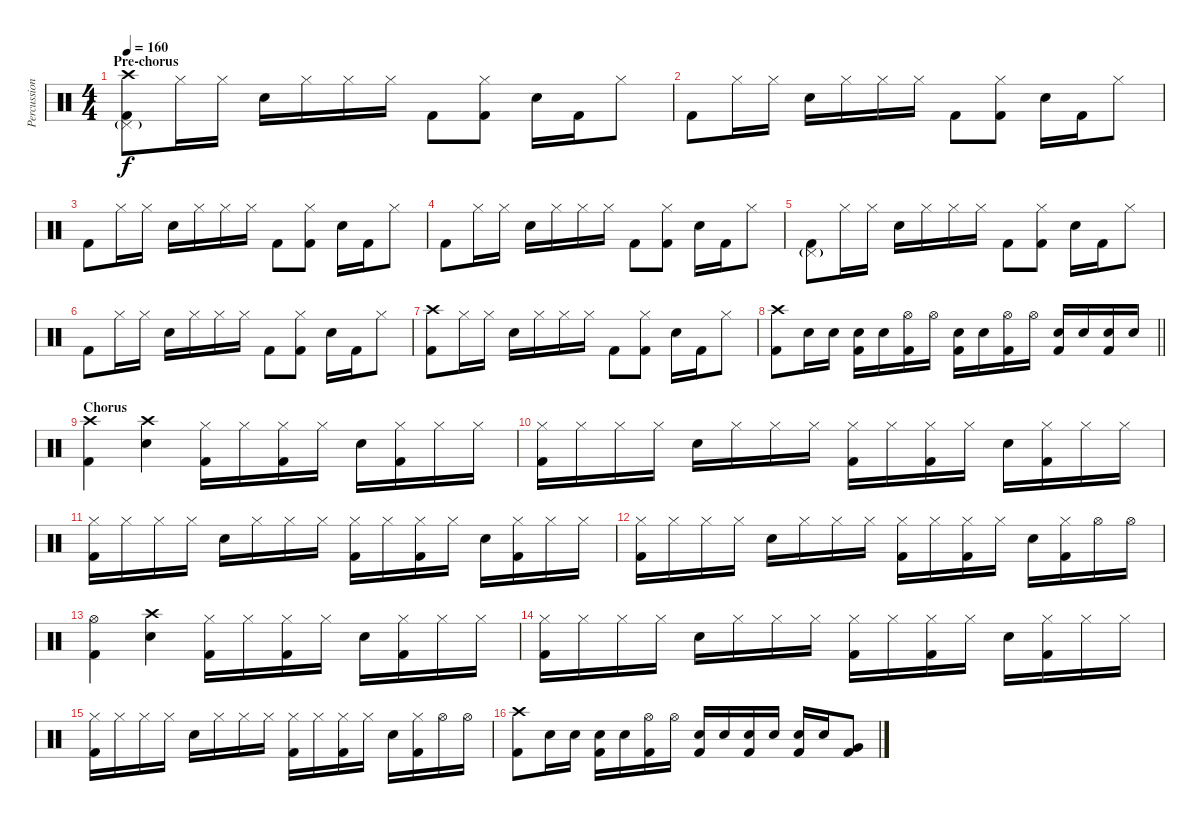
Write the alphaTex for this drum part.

\track ("Percussion" "Percussion") {instrument percussion}
\staff {score}
\articulation defaults
\ts (4 4)
\section ("" "Pre-chorus")
\tempo 160
\clef neutral
\ks c
("Crash high (hit)" "Pedal Hi-Hat (hit)"{g} "Kick (hit) 2").8{dy f} "Hi-Hat (closed)".16 "Hi-Hat (closed)".16 "Electric Snare (hit)".16 "Hi-Hat (closed)".16 "Hi-Hat (closed)".16 "Hi-Hat (closed)".16 "Kick (hit) 2".8 ("Hi-Hat (closed)" "Kick (hit) 2").8 "Electric Snare (hit)".16 "Kick (hit) 2".16 "Hi-Hat (closed)".8 |
"Kick (hit) 2".8 "Hi-Hat (closed)".16 "Hi-Hat (closed)".16 "Electric Snare (hit)".16 "Hi-Hat (closed)".16 "Hi-Hat (closed)".16 "Hi-Hat (closed)".16 "Kick (hit) 2".8 ("Hi-Hat (closed)" "Kick (hit) 2").8 "Electric Snare (hit)".16 "Kick (hit) 2".16 "Hi-Hat (closed)".8 |
"Kick (hit) 2".8 "Hi-Hat (closed)".16 "Hi-Hat (closed)".16 "Electric Snare (hit)".16 "Hi-Hat (closed)".16 "Hi-Hat (closed)".16 "Hi-Hat (closed)".16 "Kick (hit) 2".8 ("Hi-Hat (closed)" "Kick (hit) 2").8 "Electric Snare (hit)".16 "Kick (hit) 2".16 "Hi-Hat (closed)".8 |
"Kick (hit) 2".8 "Hi-Hat (closed)".16 "Hi-Hat (closed)".16 "Electric Snare (hit)".16 "Hi-Hat (closed)".16 "Hi-Hat (closed)".16 "Hi-Hat (closed)".16 "Kick (hit) 2".8 ("Hi-Hat (closed)" "Kick (hit) 2").8 "Electric Snare (hit)".16 "Kick (hit) 2".16 "Hi-Hat (closed)".8 |
("Pedal Hi-Hat (hit)"{g} "Kick (hit) 2").8 "Hi-Hat (closed)".16 "Hi-Hat (closed)".16 "Electric Snare (hit)".16 "Hi-Hat (closed)".16 "Hi-Hat (closed)".16 "Hi-Hat (closed)".16 "Kick (hit) 2".8 ("Hi-Hat (closed)" "Kick (hit) 2").8 "Electric Snare (hit)".16 "Kick (hit) 2".16 "Hi-Hat (closed)".8 |
"Kick (hit) 2".8 "Hi-Hat (closed)".16 "Hi-Hat (closed)".16 "Electric Snare (hit)".16 "Hi-Hat (closed)".16 "Hi-Hat (closed)".16 "Hi-Hat (closed)".16 "Kick (hit) 2".8 ("Hi-Hat (closed)" "Kick (hit) 2").8 "Electric Snare (hit)".16 "Kick (hit) 2".16 "Hi-Hat (closed)".8 |
("Crash high (hit)" "Kick (hit) 2").8 "Hi-Hat (closed)".16 "Hi-Hat (closed)".16 "Electric Snare (hit)".16 "Hi-Hat (closed)".16 "Hi-Hat (closed)".16 "Hi-Hat (closed)".16 "Kick (hit) 2".8 ("Hi-Hat (closed)" "Kick (hit) 2").8 "Electric Snare (hit)".16 "Kick (hit) 2".16 "Hi-Hat (closed)".8 |
\barLineRight lightlight
("Crash high (hit)" "Kick (hit) 2").8 "Electric Snare (hit)".16 "Electric Snare (hit)".16 ("Electric Snare (hit)" "Kick (hit) 2").16 "Electric Snare (hit)".16 ("Hi-Hat (open)" "Kick (hit) 2").16 "Hi-Hat (open)".16 ("Electric Snare (hit)" "Kick (hit) 2").16 "Electric Snare (hit)".16 ("Hi-Hat (open)" "Kick (hit) 2").16 "Hi-Hat (open)".16 ("Electric Snare (hit)" "Kick (hit) 2").16 "Electric Snare (hit)".16 ("Electric Snare (hit)" "Kick (hit) 2").16 "Electric Snare (hit)".16 |
\section ("" "Chorus")
("Crash high (hit)" "Kick (hit) 2").4 ("Crash high (hit)" "Electric Snare (hit)").4 ("Hi-Hat (closed)" "Kick (hit) 2").16 "Hi-Hat (closed)".16 ("Hi-Hat (closed)" "Kick (hit) 2").16 "Hi-Hat (closed)".16 "Electric Snare (hit)".16 ("Hi-Hat (closed)" "Kick (hit) 2").16 "Hi-Hat (closed)".16 "Hi-Hat (closed)".16 |
("Hi-Hat (closed)" "Kick (hit) 2").16 "Hi-Hat (closed)".16 "Hi-Hat (closed)".16 "Hi-Hat (closed)".16 "Electric Snare (hit)".16 "Hi-Hat (closed)".16 "Hi-Hat (closed)".16 "Hi-Hat (closed)".16 ("Hi-Hat (closed)" "Kick (hit) 2").16 "Hi-Hat (closed)".16 ("Hi-Hat (closed)" "Kick (hit) 2").16 "Hi-Hat (closed)".16 "Electric Snare (hit)".16 ("Hi-Hat (closed)" "Kick (hit) 2").16 "Hi-Hat (closed)".16 "Hi-Hat (closed)".16 |
("Hi-Hat (closed)" "Kick (hit) 2").16 "Hi-Hat (closed)".16 "Hi-Hat (closed)".16 "Hi-Hat (closed)".16 "Electric Snare (hit)".16 "Hi-Hat (closed)".16 "Hi-Hat (closed)".16 "Hi-Hat (closed)".16 ("Hi-Hat (closed)" "Kick (hit) 2").16 "Hi-Hat (closed)".16 ("Hi-Hat (closed)" "Kick (hit) 2").16 "Hi-Hat (closed)".16 "Electric Snare (hit)".16 ("Hi-Hat (closed)" "Kick (hit) 2").16 "Hi-Hat (closed)".16 "Hi-Hat (closed)".16 |
("Hi-Hat (closed)" "Kick (hit) 2").16 "Hi-Hat (closed)".16 "Hi-Hat (closed)".16 "Hi-Hat (closed)".16 "Electric Snare (hit)".16 "Hi-Hat (closed)".16 "Hi-Hat (closed)".16 "Hi-Hat (closed)".16 ("Hi-Hat (closed)" "Kick (hit) 2").16 "Hi-Hat (closed)".16 ("Hi-Hat (closed)" "Kick (hit) 2").16 "Hi-Hat (closed)".16 "Electric Snare (hit)".16 ("Hi-Hat (closed)" "Kick (hit) 2").16 "Hi-Hat (open)".16 "Hi-Hat (open)".16 |
("Hi-Hat (open)" "Kick (hit) 2").4 ("Crash high (hit)" "Electric Snare (hit)").4 ("Hi-Hat (closed)" "Kick (hit) 2").16 "Hi-Hat (closed)".16 ("Hi-Hat (closed)" "Kick (hit) 2").16 "Hi-Hat (closed)".16 "Electric Snare (hit)".16 ("Hi-Hat (closed)" "Kick (hit) 2").16 "Hi-Hat (closed)".16 "Hi-Hat (closed)".16 |
("Hi-Hat (closed)" "Kick (hit) 2").16 "Hi-Hat (closed)".16 "Hi-Hat (closed)".16 "Hi-Hat (closed)".16 "Electric Snare (hit)".16 "Hi-Hat (closed)".16 "Hi-Hat (closed)".16 "Hi-Hat (closed)".16 ("Hi-Hat (closed)" "Kick (hit) 2").16 "Hi-Hat (closed)".16 ("Hi-Hat (closed)" "Kick (hit) 2").16 "Hi-Hat (closed)".16 "Electric Snare (hit)".16 ("Hi-Hat (closed)" "Kick (hit) 2").16 "Hi-Hat (closed)".16 "Hi-Hat (closed)".16 |
("Hi-Hat (closed)" "Kick (hit) 2").16 "Hi-Hat (closed)".16 "Hi-Hat (closed)".16 "Hi-Hat (closed)".16 "Electric Snare (hit)".16 "Hi-Hat (closed)".16 "Hi-Hat (closed)".16 "Hi-Hat (closed)".16 ("Hi-Hat (closed)" "Kick (hit) 2").16 "Hi-Hat (closed)".16 ("Hi-Hat (closed)" "Kick (hit) 2").16 "Hi-Hat (closed)".16 "Electric Snare (hit)".16 ("Hi-Hat (closed)" "Kick (hit) 2").16 "Hi-Hat (open)".16 "Hi-Hat (open)".16 |
("Crash high (hit)" "Kick (hit) 2").8 "Electric Snare (hit)".16 "Electric Snare (hit)".16 ("Electric Snare (hit)" "Kick (hit) 2").16 "Electric Snare (hit)".16 ("Hi-Hat (open)" "Kick (hit) 2").16 "Hi-Hat (open)".16 ("Electric Snare (hit)" "Kick (hit) 2").16 "Electric Snare (hit)".16 ("Electric Snare (hit)" "Kick (hit) 2").16 "Electric Snare (hit)".16 ("Electric Snare (hit)" "Kick (hit) 2").16 "Electric Snare (hit)".16 ("Very Low Tom (hit)" "Kick (hit) 2").8
